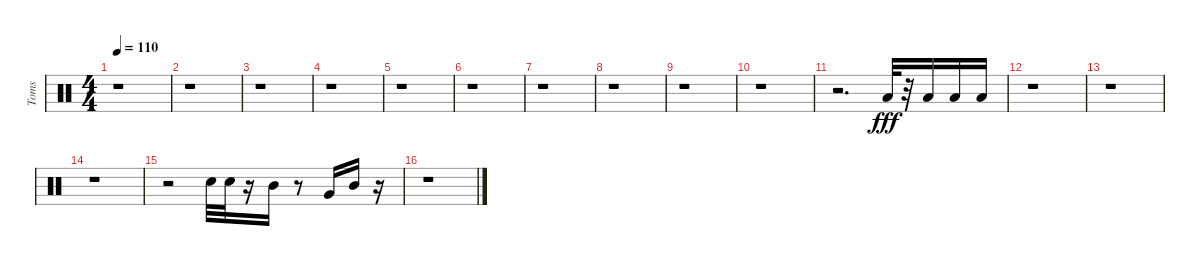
\track ("Toms" "Toms") {instrument percussion}
\staff {score}
\articulation defaults
\ts (4 4)
\tempo 110
\clef neutral
\ks c
r.1{dy fff} |
r.1 |
r.1 |
r.1 |
r.1 |
r.1 |
r.1 |
r.1 |
r.1 |
r.1 |
r.2{d} "Low Tom (hit)".32 r.32 "Low Tom (hit)".16 "Low Floor Tom (hit)".16 "Low Floor Tom (hit)".16 |
r.1 |
r.1 |
r.1 |
r.2 "Snare (hit) 2".32 "Snare (hit) 2".32 r.16 "Mid Tom (hit)".16 r.8 "Very Low Tom (hit)".16 "Mid Tom (hit)".16 r.16 |
r.1
